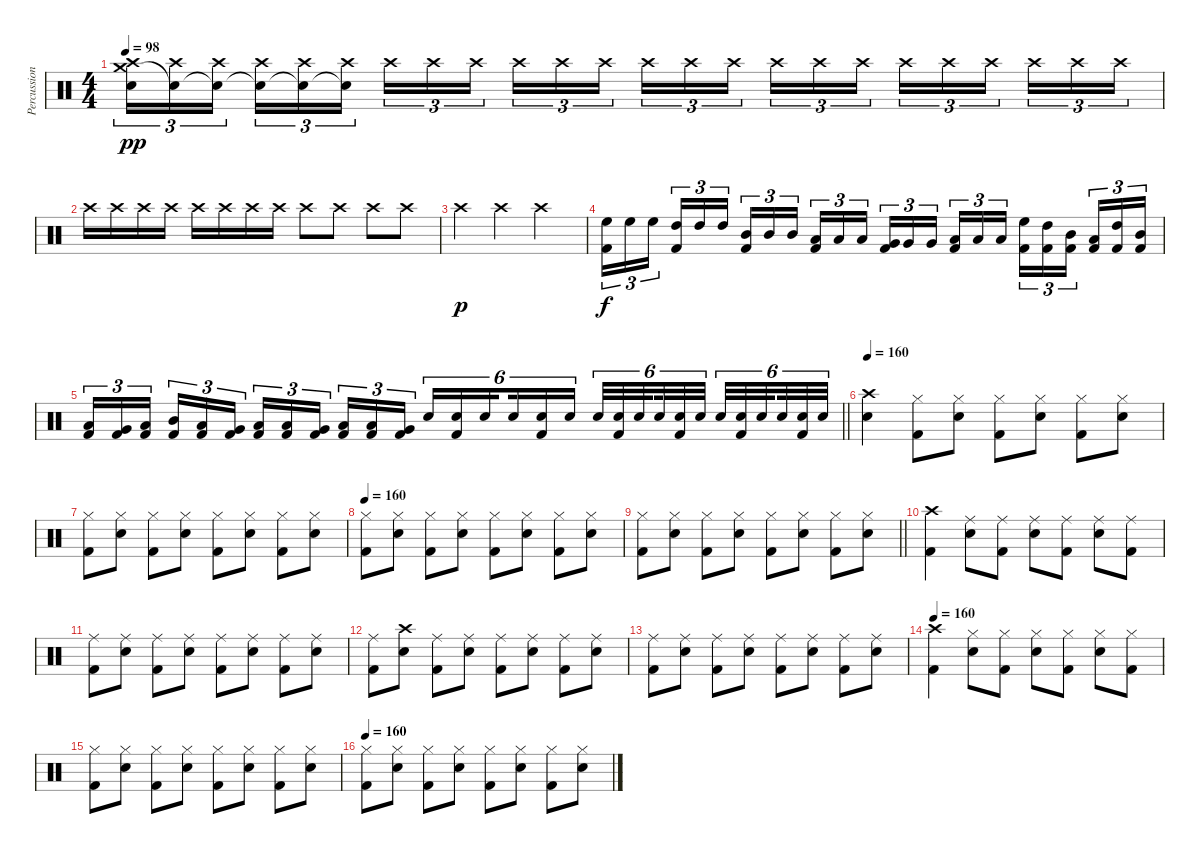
\track ("Percussion" "Percussion") {instrument percussion}
\staff {score}
\articulation defaults
\ts (4 4)
\tempo 98
\clef neutral
\ks c
("Crash medium (hit)" "Crash high (hit)" "Snare (hit) 2").16{tu (3 2) dy pp} ("Snare (hit)"{t} "Crash high (hit)").16{tu (3 2)} ("Snare (hit)"{t} "Crash high (hit)").16{tu (3 2) beam splitsecondary} ("Snare (hit)"{t} "Crash high (hit)").16{tu (3 2)} ("Snare (hit)"{t} "Crash high (hit)").16{tu (3 2)} ("Snare (hit)"{t} "Crash high (hit)").16{tu (3 2)} "Crash high (hit)".16{tu (3 2)} "Crash high (hit)".16{tu (3 2)} "Crash high (hit)".16{tu (3 2) beam splitsecondary} "Crash high (hit)".16{tu (3 2)} "Crash high (hit)".16{tu (3 2)} "Crash high (hit)".16{tu (3 2)} "Crash high (hit)".16{tu (3 2)} "Crash high (hit)".16{tu (3 2)} "Crash high (hit)".16{tu (3 2) beam splitsecondary} "Crash high (hit)".16{tu (3 2)} "Crash high (hit)".16{tu (3 2)} "Crash high (hit)".16{tu (3 2)} "Crash high (hit)".16{tu (3 2)} "Crash high (hit)".16{tu (3 2)} "Crash high (hit)".16{tu (3 2) beam splitsecondary} "Crash high (hit)".16{tu (3 2)} "Crash high (hit)".16{tu (3 2)} "Crash high (hit)".16{tu (3 2)} |
"Crash high (hit)".16 "Crash high (hit)".16 "Crash high (hit)".16 "Crash high (hit)".16 "Crash high (hit)".16 "Crash high (hit)".16 "Crash high (hit)".16 "Crash high (hit)".16 "Crash high (hit)".8 "Crash high (hit)".8 "Crash high (hit)".8 "Crash high (hit)".8 |
"Crash high (hit)".4{dy p} "Crash high (hit)".4 "Crash high (hit)".2 |
("High Floor Tom (hit)" "Kick (hit) 2").16{tu (3 2) dy f} "High Floor Tom (hit)".16{tu (3 2)} "High Floor Tom (hit)".16{tu (3 2) beam splitsecondary} ("High Tom (hit)" "Kick (hit) 2").16{tu (3 2)} "High Tom (hit)".16{tu (3 2)} "High Tom (hit)".16{tu (3 2)} ("Mid Tom (hit)" "Kick (hit) 2").16{tu (3 2)} "Mid Tom (hit)".16{tu (3 2)} "Mid Tom (hit)".16{tu (3 2) beam splitsecondary} ("Low Tom (hit)" "Kick (hit) 2").16{tu (3 2)} "Low Tom (hit)".16{tu (3 2)} "Low Tom (hit)".16{tu (3 2)} ("Very Low Tom (hit)" "Kick (hit) 2").16{tu (3 2)} "Very Low Tom (hit)".16{tu (3 2)} "Very Low Tom (hit)".16{tu (3 2) beam splitsecondary} ("Low Floor Tom (hit)" "Kick (hit) 2").16{tu (3 2)} "Low Floor Tom (hit)".16{tu (3 2)} "Low Floor Tom (hit)".16{tu (3 2)} ("High Floor Tom (hit)" "Kick (hit) 2").16{tu (3 2)} ("High Tom (hit)" "Kick (hit) 2").16{tu (3 2)} ("Mid Tom (hit)" "Kick (hit) 2").16{tu (3 2) beam splitsecondary} ("Low Tom (hit)" "Kick (hit) 2").16{tu (3 2)} ("High Tom (hit)" "Kick (hit) 2").16{tu (3 2)} ("Mid Tom (hit)" "Kick (hit) 2").16{tu (3 2)} |
\barLineRight lightlight
("Low Tom (hit)" "Kick (hit) 2").16{tu (3 2)} ("Very Low Tom (hit)" "Kick (hit) 2").16{tu (3 2)} ("Low Floor Tom (hit)" "Kick (hit) 2").16{tu (3 2) beam splitsecondary} ("Mid Tom (hit)" "Kick (hit) 2").16{tu (3 2)} ("Low Tom (hit)" "Kick (hit) 2").16{tu (3 2)} ("Very Low Tom (hit)" "Kick (hit) 2").16{tu (3 2)} ("Low Floor Tom (hit)" "Kick (hit) 2").16{tu (3 2)} ("Low Tom (hit)" "Kick (hit) 2").16{tu (3 2)} ("Very Low Tom (hit)" "Kick (hit) 2").16{tu (3 2) beam splitsecondary} ("Low Floor Tom (hit)" "Kick (hit) 2").16{tu (3 2)} ("Low Tom (hit)" "Kick (hit) 2").16{tu (3 2)} ("Very Low Tom (hit)" "Kick (hit) 2").16{tu (3 2)} "Snare (hit) 2".16{tu (6 4)} ("Snare (hit) 2" "Kick (hit) 2").16{tu (6 4)} "Snare (hit) 2".16{tu (6 4) beam splitsecondary} "Snare (hit) 2".16{tu (6 4)} ("Snare (hit) 2" "Kick (hit) 2").16{tu (6 4)} "Snare (hit) 2".16{tu (6 4)} "Snare (hit) 2".32{tu (6 4)} ("Snare (hit) 2" "Kick (hit) 2").32{tu (6 4)} "Snare (hit) 2".32{tu (6 4) beam splitsecondary} "Snare (hit) 2".32{tu (6 4)} ("Snare (hit) 2" "Kick (hit) 2").32{tu (6 4)} "Snare (hit) 2".32{tu (6 4) beam splitsecondary} "Snare (hit) 2".32{tu (6 4)} ("Snare (hit) 2" "Kick (hit) 2").32{tu (6 4)} "Snare (hit) 2".32{tu (6 4) beam splitsecondary} "Snare (hit) 2".32{tu (6 4)} ("Snare (hit) 2" "Kick (hit) 2").32{tu (6 4)} "Snare (hit) 2".32{tu (6 4)} |
\tempo 160
("Crash high (hit)" "Snare (hit) 2").4 ("Hi-Hat (closed)" "Kick (hit) 2").8 ("Hi-Hat (closed)" "Snare (hit) 2").8 ("Hi-Hat (closed)" "Kick (hit) 2").8 ("Hi-Hat (closed)" "Snare (hit) 2").8 ("Hi-Hat (closed)" "Kick (hit) 2").8 ("Hi-Hat (closed)" "Snare (hit) 2").8 |
("Hi-Hat (closed)" "Kick (hit) 2").8 ("Hi-Hat (closed)" "Snare (hit) 2").8 ("Hi-Hat (closed)" "Kick (hit) 2").8 ("Hi-Hat (closed)" "Snare (hit) 2").8 ("Hi-Hat (closed)" "Kick (hit) 2").8 ("Hi-Hat (closed)" "Snare (hit) 2").8 ("Hi-Hat (closed)" "Kick (hit) 2").8 ("Hi-Hat (closed)" "Snare (hit) 2").8 |
\tempo 160
("Hi-Hat (closed)" "Kick (hit) 2").8 ("Hi-Hat (closed)" "Snare (hit) 2").8 ("Hi-Hat (closed)" "Kick (hit) 2").8 ("Hi-Hat (closed)" "Snare (hit) 2").8 ("Hi-Hat (closed)" "Kick (hit) 2").8 ("Hi-Hat (closed)" "Snare (hit) 2").8 ("Hi-Hat (closed)" "Kick (hit) 2").8 ("Hi-Hat (closed)" "Snare (hit) 2").8 |
\barLineRight lightlight
("Hi-Hat (closed)" "Kick (hit) 2").8 ("Hi-Hat (closed)" "Snare (hit) 2").8 ("Hi-Hat (closed)" "Kick (hit) 2").8 ("Hi-Hat (closed)" "Snare (hit) 2").8 ("Hi-Hat (closed)" "Kick (hit) 2").8 ("Hi-Hat (closed)" "Snare (hit) 2").8 ("Hi-Hat (closed)" "Kick (hit) 2").8 ("Hi-Hat (closed)" "Snare (hit) 2").8 |
("Crash high (hit)" "Kick (hit) 2").4 ("Ride (middle)" "Snare (hit) 2").8 ("Ride (middle)" "Kick (hit) 2").8 ("Ride (middle)" "Snare (hit) 2").8 ("Ride (middle)" "Kick (hit) 2").8 ("Ride (middle)" "Snare (hit) 2").8 ("Ride (middle)" "Kick (hit) 2").8 |
("Ride (middle)" "Kick (hit) 2").8 ("Ride (middle)" "Snare (hit) 2").8 ("Ride (middle)" "Kick (hit) 2").8 ("Ride (middle)" "Snare (hit) 2").8 ("Ride (middle)" "Kick (hit) 2").8 ("Ride (middle)" "Snare (hit) 2").8 ("Ride (middle)" "Kick (hit) 2").8 ("Ride (middle)" "Snare (hit) 2").8 |
("Ride (middle)" "Kick (hit) 2").8 ("Crash high (hit)" "Snare (hit) 2").8 ("Ride (middle)" "Kick (hit) 2").8 ("Ride (middle)" "Snare (hit) 2").8 ("Ride (middle)" "Kick (hit) 2").8 ("Ride (middle)" "Snare (hit) 2").8 ("Ride (middle)" "Kick (hit) 2").8 ("Ride (middle)" "Snare (hit) 2").8 |
("Ride (middle)" "Kick (hit) 2").8 ("Ride (middle)" "Snare (hit) 2").8 ("Ride (middle)" "Kick (hit) 2").8 ("Ride (middle)" "Snare (hit) 2").8 ("Ride (middle)" "Kick (hit) 2").8 ("Ride (middle)" "Snare (hit) 2").8 ("Ride (middle)" "Kick (hit) 2").8 ("Ride (middle)" "Snare (hit) 2").8 |
\tempo 160
("Crash high (hit)" "Kick (hit) 2").4 ("Hi-Hat (closed)" "Snare (hit) 2").8 ("Hi-Hat (closed)" "Kick (hit) 2").8 ("Hi-Hat (closed)" "Snare (hit) 2").8 ("Hi-Hat (closed)" "Kick (hit) 2").8 ("Hi-Hat (closed)" "Snare (hit) 2").8 ("Hi-Hat (closed)" "Kick (hit) 2").8 |
("Hi-Hat (closed)" "Kick (hit) 2").8 ("Hi-Hat (closed)" "Snare (hit) 2").8 ("Hi-Hat (closed)" "Kick (hit) 2").8 ("Hi-Hat (closed)" "Snare (hit) 2").8 ("Hi-Hat (closed)" "Kick (hit) 2").8 ("Hi-Hat (closed)" "Snare (hit) 2").8 ("Hi-Hat (closed)" "Kick (hit) 2").8 ("Hi-Hat (closed)" "Snare (hit) 2").8 |
\tempo 160
("Hi-Hat (closed)" "Kick (hit) 2").8 ("Hi-Hat (closed)" "Snare (hit) 2").8 ("Hi-Hat (closed)" "Kick (hit) 2").8 ("Hi-Hat (closed)" "Snare (hit) 2").8 ("Hi-Hat (closed)" "Kick (hit) 2").8 ("Hi-Hat (closed)" "Snare (hit) 2").8 ("Hi-Hat (closed)" "Kick (hit) 2").8 ("Hi-Hat (closed)" "Snare (hit) 2").8
